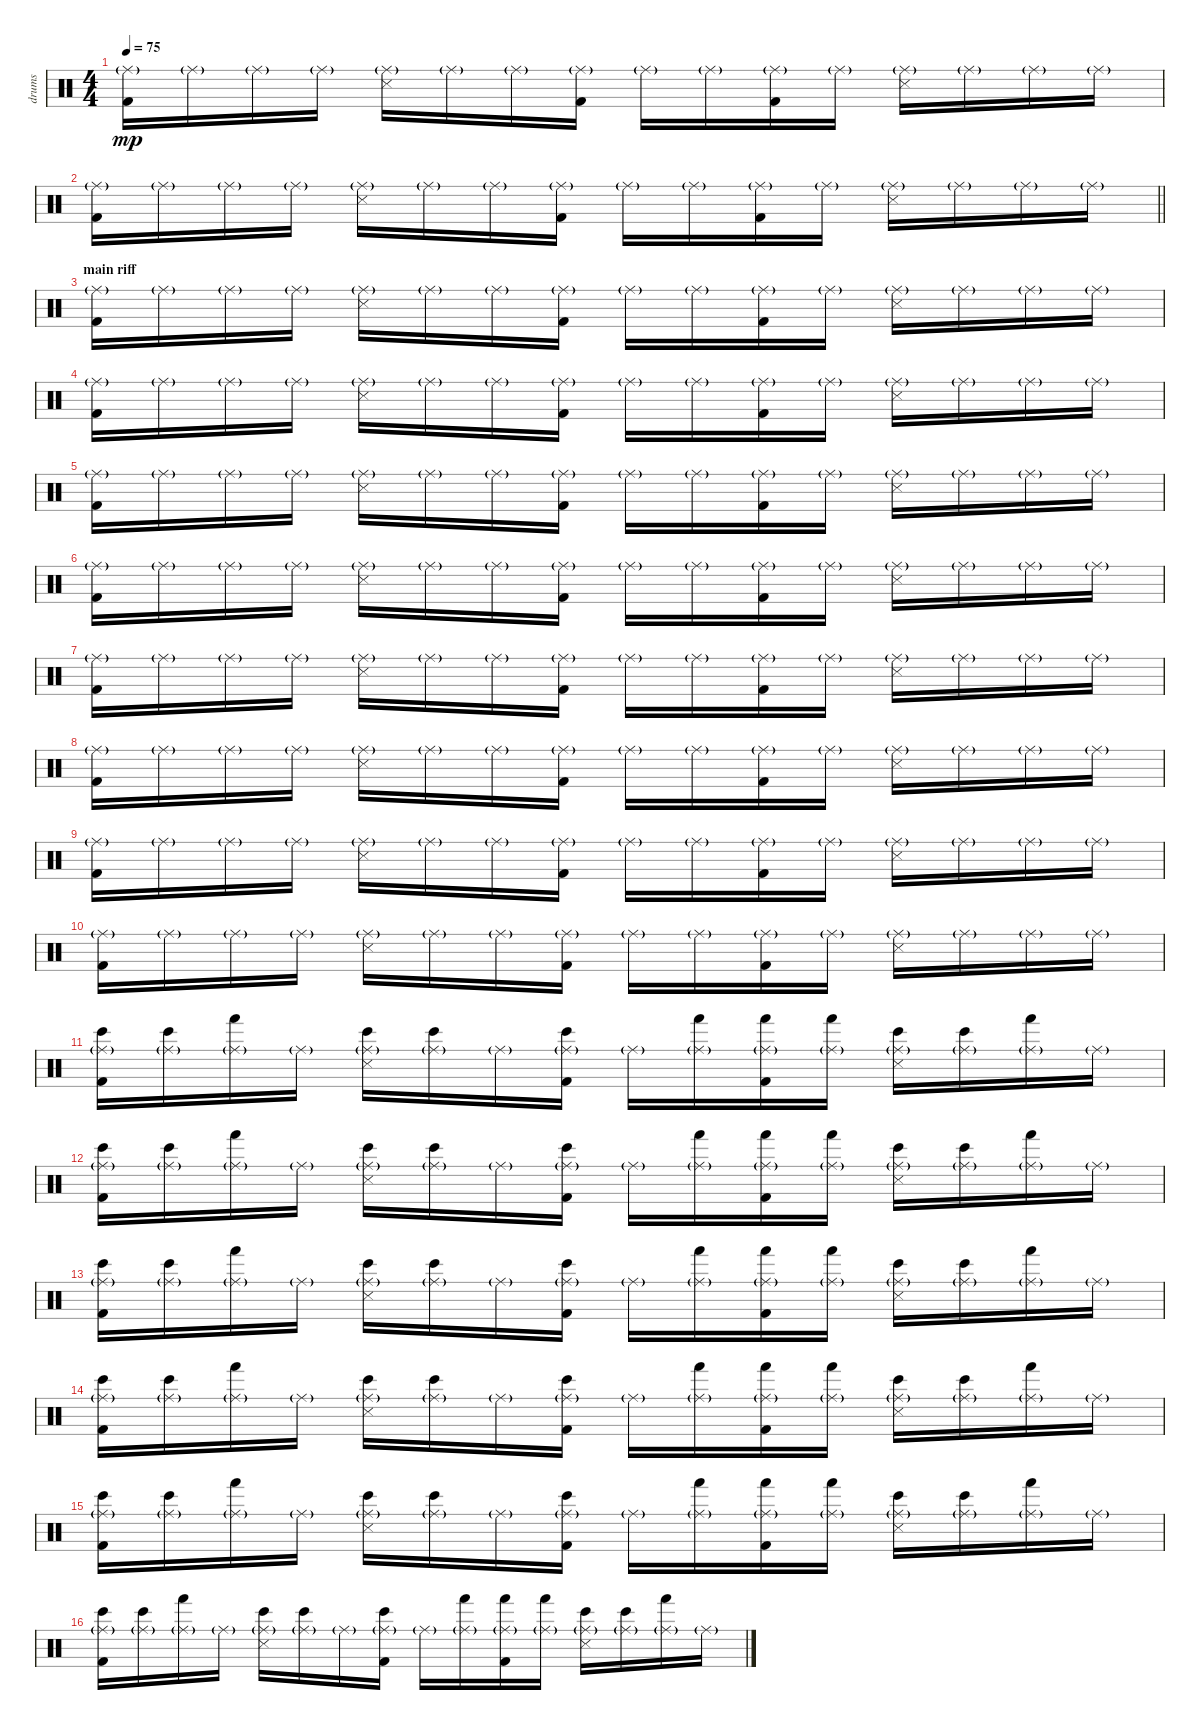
\track ("drums" "drums") {instrument percussion}
\staff {score}
\articulation defaults
\ts (4 4)
\tempo 75
\clef neutral
\ks c
("Kick (hit) 2" "Ride (middle)"{g}).16{dy mp} "Ride (middle)"{g}.16 "Ride (middle)"{g}.16 "Ride (middle)"{g}.16 ("Snare (side stick) 3" "Ride (middle)"{g}).16 "Ride (middle)"{g}.16 "Ride (middle)"{g}.16 ("Kick (hit) 2" "Ride (middle)"{g}).16 "Ride (middle)"{g}.16 "Ride (middle)"{g}.16 ("Kick (hit) 2" "Ride (middle)"{g}).16 "Ride (middle)"{g}.16 ("Snare (side stick) 3" "Ride (middle)"{g}).16 "Ride (middle)"{g}.16 "Ride (middle)"{g}.16 "Ride (middle)"{g}.16 |
\barLineRight lightlight
("Kick (hit) 2" "Ride (middle)"{g}).16 "Ride (middle)"{g}.16 "Ride (middle)"{g}.16 "Ride (middle)"{g}.16 ("Snare (side stick) 3" "Ride (middle)"{g}).16 "Ride (middle)"{g}.16 "Ride (middle)"{g}.16 ("Kick (hit) 2" "Ride (middle)"{g}).16 "Ride (middle)"{g}.16 "Ride (middle)"{g}.16 ("Kick (hit) 2" "Ride (middle)"{g}).16 "Ride (middle)"{g}.16 ("Snare (side stick) 3" "Ride (middle)"{g}).16 "Ride (middle)"{g}.16 "Ride (middle)"{g}.16 "Ride (middle)"{g}.16 |
\section ("" "main riff")
("Kick (hit) 2" "Ride (middle)"{g}).16 "Ride (middle)"{g}.16 "Ride (middle)"{g}.16 "Ride (middle)"{g}.16 ("Snare (side stick) 3" "Ride (middle)"{g}).16 "Ride (middle)"{g}.16 "Ride (middle)"{g}.16 ("Kick (hit) 2" "Ride (middle)"{g}).16 "Ride (middle)"{g}.16 "Ride (middle)"{g}.16 ("Kick (hit) 2" "Ride (middle)"{g}).16 "Ride (middle)"{g}.16 ("Snare (side stick) 3" "Ride (middle)"{g}).16 "Ride (middle)"{g}.16 "Ride (middle)"{g}.16 "Ride (middle)"{g}.16 |
("Kick (hit) 2" "Ride (middle)"{g}).16 "Ride (middle)"{g}.16 "Ride (middle)"{g}.16 "Ride (middle)"{g}.16 ("Snare (side stick) 3" "Ride (middle)"{g}).16 "Ride (middle)"{g}.16 "Ride (middle)"{g}.16 ("Kick (hit) 2" "Ride (middle)"{g}).16 "Ride (middle)"{g}.16 "Ride (middle)"{g}.16 ("Kick (hit) 2" "Ride (middle)"{g}).16 "Ride (middle)"{g}.16 ("Snare (side stick) 3" "Ride (middle)"{g}).16 "Ride (middle)"{g}.16 "Ride (middle)"{g}.16 "Ride (middle)"{g}.16 |
("Kick (hit) 2" "Ride (middle)"{g}).16 "Ride (middle)"{g}.16 "Ride (middle)"{g}.16 "Ride (middle)"{g}.16 ("Snare (side stick) 3" "Ride (middle)"{g}).16 "Ride (middle)"{g}.16 "Ride (middle)"{g}.16 ("Kick (hit) 2" "Ride (middle)"{g}).16 "Ride (middle)"{g}.16 "Ride (middle)"{g}.16 ("Kick (hit) 2" "Ride (middle)"{g}).16 "Ride (middle)"{g}.16 ("Snare (side stick) 3" "Ride (middle)"{g}).16 "Ride (middle)"{g}.16 "Ride (middle)"{g}.16 "Ride (middle)"{g}.16 |
("Kick (hit) 2" "Ride (middle)"{g}).16 "Ride (middle)"{g}.16 "Ride (middle)"{g}.16 "Ride (middle)"{g}.16 ("Snare (side stick) 3" "Ride (middle)"{g}).16 "Ride (middle)"{g}.16 "Ride (middle)"{g}.16 ("Kick (hit) 2" "Ride (middle)"{g}).16 "Ride (middle)"{g}.16 "Ride (middle)"{g}.16 ("Kick (hit) 2" "Ride (middle)"{g}).16 "Ride (middle)"{g}.16 ("Snare (side stick) 3" "Ride (middle)"{g}).16 "Ride (middle)"{g}.16 "Ride (middle)"{g}.16 "Ride (middle)"{g}.16 |
("Kick (hit) 2" "Ride (middle)"{g}).16 "Ride (middle)"{g}.16 "Ride (middle)"{g}.16 "Ride (middle)"{g}.16 ("Snare (side stick) 3" "Ride (middle)"{g}).16 "Ride (middle)"{g}.16 "Ride (middle)"{g}.16 ("Kick (hit) 2" "Ride (middle)"{g}).16 "Ride (middle)"{g}.16 "Ride (middle)"{g}.16 ("Kick (hit) 2" "Ride (middle)"{g}).16 "Ride (middle)"{g}.16 ("Snare (side stick) 3" "Ride (middle)"{g}).16 "Ride (middle)"{g}.16 "Ride (middle)"{g}.16 "Ride (middle)"{g}.16 |
("Kick (hit) 2" "Ride (middle)"{g}).16 "Ride (middle)"{g}.16 "Ride (middle)"{g}.16 "Ride (middle)"{g}.16 ("Snare (side stick) 3" "Ride (middle)"{g}).16 "Ride (middle)"{g}.16 "Ride (middle)"{g}.16 ("Kick (hit) 2" "Ride (middle)"{g}).16 "Ride (middle)"{g}.16 "Ride (middle)"{g}.16 ("Kick (hit) 2" "Ride (middle)"{g}).16 "Ride (middle)"{g}.16 ("Snare (side stick) 3" "Ride (middle)"{g}).16 "Ride (middle)"{g}.16 "Ride (middle)"{g}.16 "Ride (middle)"{g}.16 |
("Kick (hit) 2" "Ride (middle)"{g}).16 "Ride (middle)"{g}.16 "Ride (middle)"{g}.16 "Ride (middle)"{g}.16 ("Snare (side stick) 3" "Ride (middle)"{g}).16 "Ride (middle)"{g}.16 "Ride (middle)"{g}.16 ("Kick (hit) 2" "Ride (middle)"{g}).16 "Ride (middle)"{g}.16 "Ride (middle)"{g}.16 ("Kick (hit) 2" "Ride (middle)"{g}).16 "Ride (middle)"{g}.16 ("Snare (side stick) 3" "Ride (middle)"{g}).16 "Ride (middle)"{g}.16 "Ride (middle)"{g}.16 "Ride (middle)"{g}.16 |
("Kick (hit) 2" "Ride (middle)"{g}).16 "Ride (middle)"{g}.16 "Ride (middle)"{g}.16 "Ride (middle)"{g}.16 ("Snare (side stick) 3" "Ride (middle)"{g}).16 "Ride (middle)"{g}.16 "Ride (middle)"{g}.16 ("Kick (hit) 2" "Ride (middle)"{g}).16 "Ride (middle)"{g}.16 "Ride (middle)"{g}.16 ("Kick (hit) 2" "Ride (middle)"{g}).16 "Ride (middle)"{g}.16 ("Snare (side stick) 3" "Ride (middle)"{g}).16 "Ride (middle)"{g}.16 "Ride (middle)"{g}.16 "Ride (middle)"{g}.16 |
("Kick (hit) 2" "Bongo High (hit)" "Ride (middle)"{g}).16 ("Bongo High (hit)" "Ride (middle)"{g}).16 ("Hand (hit)" "Ride (middle)"{g}).16 "Ride (middle)"{g}.16 ("Snare (side stick) 3" "Bongo High (hit)" "Ride (middle)"{g}).16 ("Bongo High (hit)" "Ride (middle)"{g}).16 "Ride (middle)"{g}.16 ("Kick (hit) 2" "Bongo High (hit)" "Ride (middle)"{g}).16 "Ride (middle)"{g}.16 ("Hand (hit)" "Ride (middle)"{g}).16 ("Kick (hit) 2" "Hand (hit)" "Ride (middle)"{g}).16 ("Hand (hit)" "Ride (middle)"{g}).16 ("Snare (side stick) 3" "Bongo High (hit)" "Ride (middle)"{g}).16 ("Bongo High (hit)" "Ride (middle)"{g}).16 ("Hand (hit)" "Ride (middle)"{g}).16 "Ride (middle)"{g}.16 |
("Kick (hit) 2" "Bongo High (hit)" "Ride (middle)"{g}).16 ("Bongo High (hit)" "Ride (middle)"{g}).16 ("Hand (hit)" "Ride (middle)"{g}).16 "Ride (middle)"{g}.16 ("Snare (side stick) 3" "Bongo High (hit)" "Ride (middle)"{g}).16 ("Bongo High (hit)" "Ride (middle)"{g}).16 "Ride (middle)"{g}.16 ("Kick (hit) 2" "Bongo High (hit)" "Ride (middle)"{g}).16 "Ride (middle)"{g}.16 ("Hand (hit)" "Ride (middle)"{g}).16 ("Kick (hit) 2" "Hand (hit)" "Ride (middle)"{g}).16 ("Hand (hit)" "Ride (middle)"{g}).16 ("Snare (side stick) 3" "Bongo High (hit)" "Ride (middle)"{g}).16 ("Bongo High (hit)" "Ride (middle)"{g}).16 ("Hand (hit)" "Ride (middle)"{g}).16 "Ride (middle)"{g}.16 |
("Kick (hit) 2" "Bongo High (hit)" "Ride (middle)"{g}).16 ("Bongo High (hit)" "Ride (middle)"{g}).16 ("Hand (hit)" "Ride (middle)"{g}).16 "Ride (middle)"{g}.16 ("Snare (side stick) 3" "Bongo High (hit)" "Ride (middle)"{g}).16 ("Bongo High (hit)" "Ride (middle)"{g}).16 "Ride (middle)"{g}.16 ("Kick (hit) 2" "Bongo High (hit)" "Ride (middle)"{g}).16 "Ride (middle)"{g}.16 ("Hand (hit)" "Ride (middle)"{g}).16 ("Kick (hit) 2" "Hand (hit)" "Ride (middle)"{g}).16 ("Hand (hit)" "Ride (middle)"{g}).16 ("Snare (side stick) 3" "Bongo High (hit)" "Ride (middle)"{g}).16 ("Bongo High (hit)" "Ride (middle)"{g}).16 ("Hand (hit)" "Ride (middle)"{g}).16 "Ride (middle)"{g}.16 |
("Kick (hit) 2" "Bongo High (hit)" "Ride (middle)"{g}).16 ("Bongo High (hit)" "Ride (middle)"{g}).16 ("Hand (hit)" "Ride (middle)"{g}).16 "Ride (middle)"{g}.16 ("Snare (side stick) 3" "Bongo High (hit)" "Ride (middle)"{g}).16 ("Bongo High (hit)" "Ride (middle)"{g}).16 "Ride (middle)"{g}.16 ("Kick (hit) 2" "Bongo High (hit)" "Ride (middle)"{g}).16 "Ride (middle)"{g}.16 ("Hand (hit)" "Ride (middle)"{g}).16 ("Kick (hit) 2" "Hand (hit)" "Ride (middle)"{g}).16 ("Hand (hit)" "Ride (middle)"{g}).16 ("Snare (side stick) 3" "Bongo High (hit)" "Ride (middle)"{g}).16 ("Bongo High (hit)" "Ride (middle)"{g}).16 ("Hand (hit)" "Ride (middle)"{g}).16 "Ride (middle)"{g}.16 |
("Kick (hit) 2" "Bongo High (hit)" "Ride (middle)"{g}).16 ("Bongo High (hit)" "Ride (middle)"{g}).16 ("Hand (hit)" "Ride (middle)"{g}).16 "Ride (middle)"{g}.16 ("Snare (side stick) 3" "Bongo High (hit)" "Ride (middle)"{g}).16 ("Bongo High (hit)" "Ride (middle)"{g}).16 "Ride (middle)"{g}.16 ("Kick (hit) 2" "Bongo High (hit)" "Ride (middle)"{g}).16 "Ride (middle)"{g}.16 ("Hand (hit)" "Ride (middle)"{g}).16 ("Kick (hit) 2" "Hand (hit)" "Ride (middle)"{g}).16 ("Hand (hit)" "Ride (middle)"{g}).16 ("Snare (side stick) 3" "Bongo High (hit)" "Ride (middle)"{g}).16 ("Bongo High (hit)" "Ride (middle)"{g}).16 ("Hand (hit)" "Ride (middle)"{g}).16 "Ride (middle)"{g}.16 |
("Kick (hit) 2" "Bongo High (hit)" "Ride (middle)"{g}).16 ("Bongo High (hit)" "Ride (middle)"{g}).16 ("Hand (hit)" "Ride (middle)"{g}).16 "Ride (middle)"{g}.16 ("Snare (side stick) 3" "Bongo High (hit)" "Ride (middle)"{g}).16 ("Bongo High (hit)" "Ride (middle)"{g}).16 "Ride (middle)"{g}.16 ("Kick (hit) 2" "Bongo High (hit)" "Ride (middle)"{g}).16 "Ride (middle)"{g}.16 ("Hand (hit)" "Ride (middle)"{g}).16 ("Kick (hit) 2" "Hand (hit)" "Ride (middle)"{g}).16 ("Hand (hit)" "Ride (middle)"{g}).16 ("Snare (side stick) 3" "Bongo High (hit)" "Ride (middle)"{g}).16 ("Bongo High (hit)" "Ride (middle)"{g}).16 ("Hand (hit)" "Ride (middle)"{g}).16 "Ride (middle)"{g}.16
